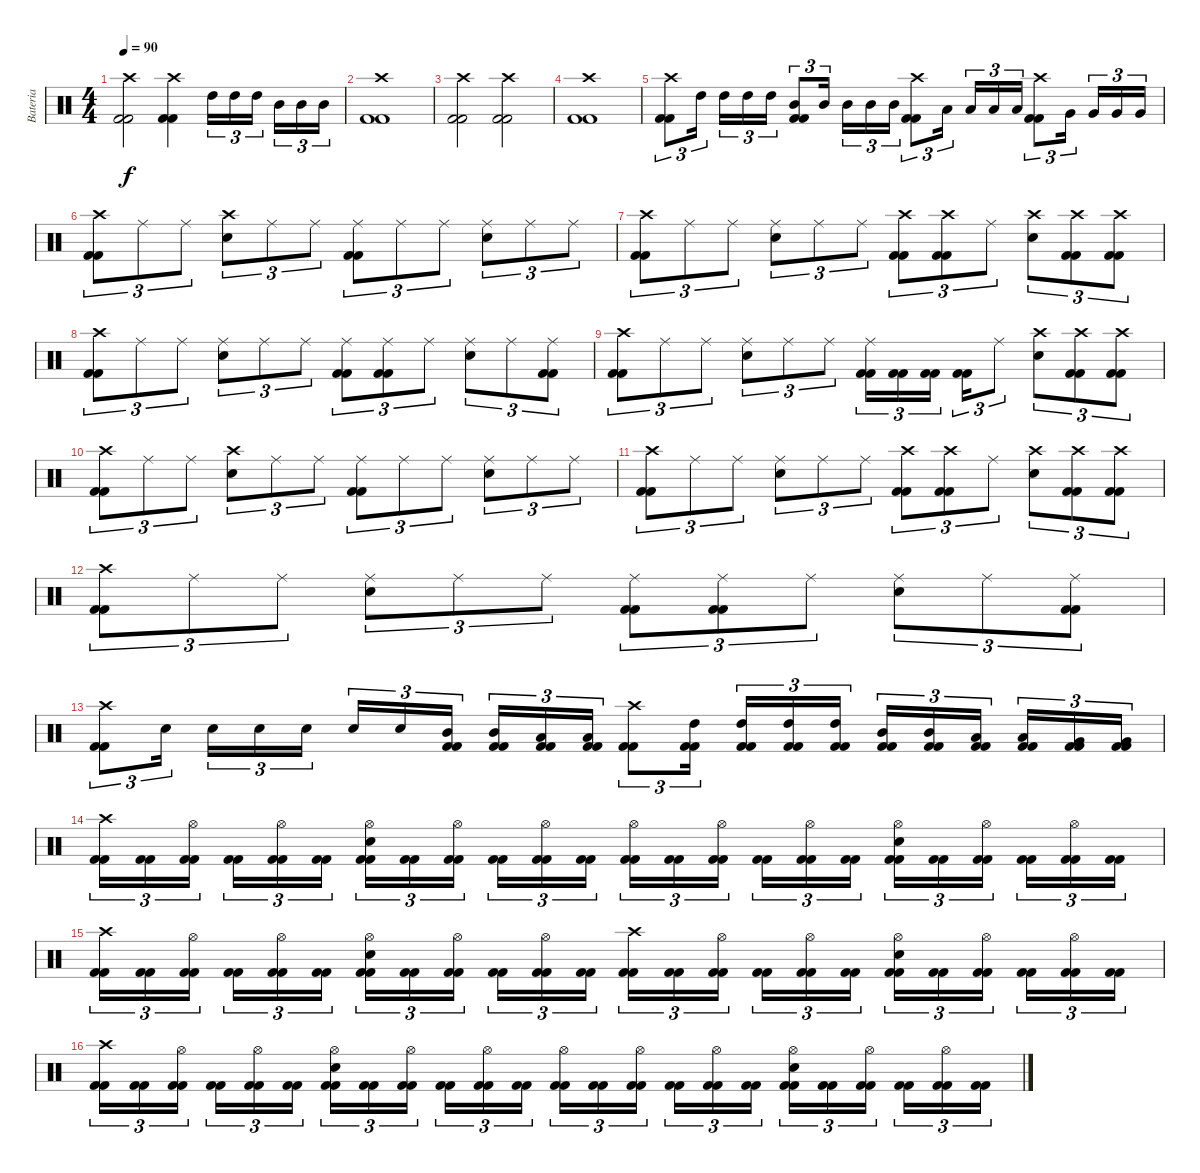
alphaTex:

\track ("Bateria" "Bateria") {instrument percussion}
\staff {score}
\articulation defaults
\ts (4 4)
\tempo 90
\clef neutral
\ks c
("Kick (hit) 2" "Kick (hit) 2" "Crash high (hit)").2{dy f} ("Kick (hit) 2" "Kick (hit) 2" "Crash high (hit)").4 "High Tom (hit)".16{tu (3 2)} "High Tom (hit)".16{tu (3 2)} "High Tom (hit)".16{tu (3 2)} "Mid Tom (hit)".16{tu (3 2)} "Mid Tom (hit)".16{tu (3 2)} "Mid Tom (hit)".16{tu (3 2)} |
("Kick (hit) 2" "Kick (hit) 2" "Crash high (hit)").1 |
("Kick (hit) 2" "Kick (hit) 2" "Crash high (hit)").2 ("Kick (hit) 2" "Kick (hit) 2" "Crash high (hit)").2 |
("Kick (hit) 2" "Kick (hit) 2" "Crash high (hit)").1 |
("Kick (hit) 2" "Kick (hit) 2" "Crash high (hit)").8{tu (3 2)} "High Tom (hit)".16{tu (3 2)} "High Tom (hit)".16{tu (3 2)} "High Tom (hit)".16{tu (3 2)} "High Tom (hit)".16{tu (3 2)} ("Kick (hit) 2" "Kick (hit) 2" "Mid Tom (hit)").8{tu (3 2)} "Mid Tom (hit)".16{tu (3 2)} "Mid Tom (hit)".16{tu (3 2)} "Mid Tom (hit)".16{tu (3 2)} "Mid Tom (hit)".16{tu (3 2)} ("Kick (hit) 2" "Kick (hit) 2" "Crash high (hit)").8{tu (3 2)} "Low Tom (hit)".16{tu (3 2)} "Low Tom (hit)".16{tu (3 2)} "Low Tom (hit)".16{tu (3 2)} "Low Tom (hit)".16{tu (3 2)} ("Kick (hit) 2" "Kick (hit) 2" "Crash high (hit)").8{tu (3 2)} "Very Low Tom (hit)".16{tu (3 2)} "Very Low Tom (hit)".16{tu (3 2)} "Very Low Tom (hit)".16{tu (3 2)} "Very Low Tom (hit)".16{tu (3 2)} |
("Kick (hit) 2" "Kick (hit) 2" "Crash high (hit)").8{tu (3 2)} "Ride (middle)".8{tu (3 2)} "Ride (middle)".8{tu (3 2)} ("Snare (hit) 2" "Crash high (hit)").8{tu (3 2)} "Ride (middle)".8{tu (3 2)} "Ride (middle)".8{tu (3 2)} ("Kick (hit) 2" "Kick (hit) 2" "Ride (middle)").8{tu (3 2)} "Ride (middle)".8{tu (3 2)} "Ride (middle)".8{tu (3 2)} ("Snare (hit) 2" "Ride (middle)").8{tu (3 2)} "Ride (middle)".8{tu (3 2)} "Ride (middle)".8{tu (3 2)} |
("Kick (hit) 2" "Kick (hit) 2" "Crash high (hit)").8{tu (3 2)} "Ride (middle)".8{tu (3 2)} "Ride (middle)".8{tu (3 2)} ("Snare (hit) 2" "Ride (middle)").8{tu (3 2)} "Ride (middle)".8{tu (3 2)} "Ride (middle)".8{tu (3 2)} ("Kick (hit) 2" "Kick (hit) 2" "Crash high (hit)").8{tu (3 2)} ("Kick (hit) 2" "Kick (hit) 2" "Crash high (hit)").8{tu (3 2)} "Ride (middle)".8{tu (3 2)} ("Snare (hit) 2" "Crash high (hit)").8{tu (3 2)} ("Kick (hit) 2" "Kick (hit) 2" "Crash high (hit)").8{tu (3 2)} ("Kick (hit) 2" "Kick (hit) 2" "Crash high (hit)").8{tu (3 2)} |
("Kick (hit) 2" "Kick (hit) 2" "Crash high (hit)").8{tu (3 2)} "Ride (middle)".8{tu (3 2)} "Ride (middle)".8{tu (3 2)} ("Snare (hit) 2" "Ride (middle)").8{tu (3 2)} "Ride (middle)".8{tu (3 2)} "Ride (middle)".8{tu (3 2)} ("Kick (hit) 2" "Kick (hit) 2" "Ride (middle)").8{tu (3 2)} ("Kick (hit) 2" "Kick (hit) 2" "Ride (middle)").8{tu (3 2)} "Ride (middle)".8{tu (3 2)} ("Snare (hit) 2" "Ride (middle)").8{tu (3 2)} "Ride (middle)".8{tu (3 2)} ("Kick (hit) 2" "Kick (hit) 2" "Ride (middle)").8{tu (3 2)} |
("Kick (hit) 2" "Kick (hit) 2" "Crash high (hit)").8{tu (3 2)} "Ride (middle)".8{tu (3 2)} "Ride (middle)".8{tu (3 2)} ("Snare (hit) 2" "Ride (middle)").8{tu (3 2)} "Ride (middle)".8{tu (3 2)} "Ride (middle)".8{tu (3 2)} ("Kick (hit) 2" "Kick (hit) 2" "Ride (middle)").16{tu (3 2)} ("Kick (hit) 2" "Kick (hit) 2").16{tu (3 2)} ("Kick (hit) 2" "Kick (hit) 2").16{tu (3 2)} ("Kick (hit) 2" "Kick (hit) 2").16{tu (3 2)} "Ride (middle)".8{tu (3 2)} ("Snare (hit) 2" "Crash high (hit)").8{tu (3 2)} ("Kick (hit) 2" "Kick (hit) 2" "Crash high (hit)").8{tu (3 2)} ("Kick (hit) 2" "Kick (hit) 2" "Crash high (hit)").8{tu (3 2)} |
("Kick (hit) 2" "Kick (hit) 2" "Crash high (hit)").8{tu (3 2)} "Ride (middle)".8{tu (3 2)} "Ride (middle)".8{tu (3 2)} ("Snare (hit) 2" "Crash high (hit)").8{tu (3 2)} "Ride (middle)".8{tu (3 2)} "Ride (middle)".8{tu (3 2)} ("Kick (hit) 2" "Kick (hit) 2" "Ride (middle)").8{tu (3 2)} "Ride (middle)".8{tu (3 2)} "Ride (middle)".8{tu (3 2)} ("Snare (hit) 2" "Ride (middle)").8{tu (3 2)} "Ride (middle)".8{tu (3 2)} "Ride (middle)".8{tu (3 2)} |
("Kick (hit) 2" "Kick (hit) 2" "Crash high (hit)").8{tu (3 2)} "Ride (middle)".8{tu (3 2)} "Ride (middle)".8{tu (3 2)} ("Snare (hit) 2" "Ride (middle)").8{tu (3 2)} "Ride (middle)".8{tu (3 2)} "Ride (middle)".8{tu (3 2)} ("Kick (hit) 2" "Kick (hit) 2" "Crash high (hit)").8{tu (3 2)} ("Kick (hit) 2" "Kick (hit) 2" "Crash high (hit)").8{tu (3 2)} "Ride (middle)".8{tu (3 2)} ("Snare (hit) 2" "Crash high (hit)").8{tu (3 2)} ("Kick (hit) 2" "Kick (hit) 2" "Crash high (hit)").8{tu (3 2)} ("Kick (hit) 2" "Kick (hit) 2" "Crash high (hit)").8{tu (3 2)} |
("Kick (hit) 2" "Kick (hit) 2" "Crash high (hit)").8{tu (3 2)} "Ride (middle)".8{tu (3 2)} "Ride (middle)".8{tu (3 2)} ("Snare (hit) 2" "Ride (middle)").8{tu (3 2)} "Ride (middle)".8{tu (3 2)} "Ride (middle)".8{tu (3 2)} ("Kick (hit) 2" "Kick (hit) 2" "Ride (middle)").8{tu (3 2)} ("Kick (hit) 2" "Kick (hit) 2" "Ride (middle)").8{tu (3 2)} "Ride (middle)".8{tu (3 2)} ("Snare (hit) 2" "Ride (middle)").8{tu (3 2)} "Ride (middle)".8{tu (3 2)} ("Kick (hit) 2" "Kick (hit) 2" "Ride (middle)").8{tu (3 2)} |
("Kick (hit) 2" "Kick (hit) 2" "Crash high (hit)").8{tu (3 2)} "Snare (hit) 2".16{tu (3 2)} "Snare (hit) 2".16{tu (3 2)} "Snare (hit) 2".16{tu (3 2)} "Snare (hit) 2".16{tu (3 2)} "Snare (hit) 2".16{tu (3 2)} "Snare (hit) 2".16{tu (3 2)} ("Kick (hit) 2" "Kick (hit) 2" "Mid Tom (hit)").16{tu (3 2)} ("Kick (hit) 2" "Kick (hit) 2" "Mid Tom (hit)").16{tu (3 2)} ("Kick (hit) 2" "Kick (hit) 2" "Low Tom (hit)").16{tu (3 2)} ("Kick (hit) 2" "Kick (hit) 2" "Low Tom (hit)").16{tu (3 2)} ("Kick (hit) 2" "Kick (hit) 2" "Crash high (hit)").8{tu (3 2)} ("Kick (hit) 2" "Kick (hit) 2" "High Tom (hit)").16{tu (3 2)} ("Kick (hit) 2" "Kick (hit) 2" "High Tom (hit)").16{tu (3 2)} ("Kick (hit) 2" "Kick (hit) 2" "High Tom (hit)").16{tu (3 2)} ("Kick (hit) 2" "Kick (hit) 2" "High Tom (hit)").16{tu (3 2)} ("Kick (hit) 2" "Kick (hit) 2" "Mid Tom (hit)").16{tu (3 2)} ("Kick (hit) 2" "Kick (hit) 2" "Mid Tom (hit)").16{tu (3 2)} ("Kick (hit) 2" "Kick (hit) 2" "Low Tom (hit)").16{tu (3 2)} ("Kick (hit) 2" "Kick (hit) 2" "Low Tom (hit)").16{tu (3 2)} ("Kick (hit) 2" "Kick (hit) 2" "Very Low Tom (hit)").16{tu (3 2)} ("Kick (hit) 2" "Kick (hit) 2" "Very Low Tom (hit)").16{tu (3 2)} |
("Kick (hit) 2" "Kick (hit) 2" "Crash high (hit)").16{tu (3 2)} ("Kick (hit) 2" "Kick (hit) 2").16{tu (3 2)} ("Kick (hit) 2" "Kick (hit) 2" "Hi-Hat (open)").16{tu (3 2)} ("Kick (hit) 2" "Kick (hit) 2").16{tu (3 2)} ("Kick (hit) 2" "Kick (hit) 2" "Hi-Hat (open)").16{tu (3 2)} ("Kick (hit) 2" "Kick (hit) 2").16{tu (3 2)} ("Kick (hit) 2" "Kick (hit) 2" "Snare (hit) 2" "Hi-Hat (open)").16{tu (3 2)} ("Kick (hit) 2" "Kick (hit) 2").16{tu (3 2)} ("Kick (hit) 2" "Kick (hit) 2" "Hi-Hat (open)").16{tu (3 2)} ("Kick (hit) 2" "Kick (hit) 2").16{tu (3 2)} ("Kick (hit) 2" "Kick (hit) 2" "Hi-Hat (open)").16{tu (3 2)} ("Kick (hit) 2" "Kick (hit) 2").16{tu (3 2)} ("Kick (hit) 2" "Kick (hit) 2" "Hi-Hat (open)").16{tu (3 2)} ("Kick (hit) 2" "Kick (hit) 2").16{tu (3 2)} ("Kick (hit) 2" "Kick (hit) 2" "Hi-Hat (open)").16{tu (3 2)} ("Kick (hit) 2" "Kick (hit) 2").16{tu (3 2)} ("Kick (hit) 2" "Kick (hit) 2" "Hi-Hat (open)").16{tu (3 2)} ("Kick (hit) 2" "Kick (hit) 2").16{tu (3 2)} ("Kick (hit) 2" "Kick (hit) 2" "Snare (hit) 2" "Hi-Hat (open)").16{tu (3 2)} ("Kick (hit) 2" "Kick (hit) 2").16{tu (3 2)} ("Kick (hit) 2" "Kick (hit) 2" "Hi-Hat (open)").16{tu (3 2)} ("Kick (hit) 2" "Kick (hit) 2").16{tu (3 2)} ("Kick (hit) 2" "Kick (hit) 2" "Hi-Hat (open)").16{tu (3 2)} ("Kick (hit) 2" "Kick (hit) 2").16{tu (3 2)} |
("Kick (hit) 2" "Kick (hit) 2" "Crash high (hit)").16{tu (3 2)} ("Kick (hit) 2" "Kick (hit) 2").16{tu (3 2)} ("Kick (hit) 2" "Kick (hit) 2" "Hi-Hat (open)").16{tu (3 2)} ("Kick (hit) 2" "Kick (hit) 2").16{tu (3 2)} ("Kick (hit) 2" "Kick (hit) 2" "Hi-Hat (open)").16{tu (3 2)} ("Kick (hit) 2" "Kick (hit) 2").16{tu (3 2)} ("Kick (hit) 2" "Kick (hit) 2" "Snare (hit) 2" "Hi-Hat (open)").16{tu (3 2)} ("Kick (hit) 2" "Kick (hit) 2").16{tu (3 2)} ("Kick (hit) 2" "Kick (hit) 2" "Hi-Hat (open)").16{tu (3 2)} ("Kick (hit) 2" "Kick (hit) 2").16{tu (3 2)} ("Kick (hit) 2" "Kick (hit) 2" "Hi-Hat (open)").16{tu (3 2)} ("Kick (hit) 2" "Kick (hit) 2").16{tu (3 2)} ("Kick (hit) 2" "Kick (hit) 2" "Crash high (hit)").16{tu (3 2)} ("Kick (hit) 2" "Kick (hit) 2").16{tu (3 2)} ("Kick (hit) 2" "Kick (hit) 2" "Hi-Hat (open)").16{tu (3 2)} ("Kick (hit) 2" "Kick (hit) 2").16{tu (3 2)} ("Kick (hit) 2" "Kick (hit) 2" "Hi-Hat (open)").16{tu (3 2)} ("Kick (hit) 2" "Kick (hit) 2").16{tu (3 2)} ("Kick (hit) 2" "Kick (hit) 2" "Snare (hit) 2" "Hi-Hat (open)").16{tu (3 2)} ("Kick (hit) 2" "Kick (hit) 2").16{tu (3 2)} ("Kick (hit) 2" "Kick (hit) 2" "Hi-Hat (open)").16{tu (3 2)} ("Kick (hit) 2" "Kick (hit) 2").16{tu (3 2)} ("Kick (hit) 2" "Kick (hit) 2" "Hi-Hat (open)").16{tu (3 2)} ("Kick (hit) 2" "Kick (hit) 2").16{tu (3 2)} |
("Kick (hit) 2" "Kick (hit) 2" "Crash high (hit)").16{tu (3 2)} ("Kick (hit) 2" "Kick (hit) 2").16{tu (3 2)} ("Kick (hit) 2" "Kick (hit) 2" "Hi-Hat (open)").16{tu (3 2)} ("Kick (hit) 2" "Kick (hit) 2").16{tu (3 2)} ("Kick (hit) 2" "Kick (hit) 2" "Hi-Hat (open)").16{tu (3 2)} ("Kick (hit) 2" "Kick (hit) 2").16{tu (3 2)} ("Kick (hit) 2" "Kick (hit) 2" "Snare (hit) 2" "Hi-Hat (open)").16{tu (3 2)} ("Kick (hit) 2" "Kick (hit) 2").16{tu (3 2)} ("Kick (hit) 2" "Kick (hit) 2" "Hi-Hat (open)").16{tu (3 2)} ("Kick (hit) 2" "Kick (hit) 2").16{tu (3 2)} ("Kick (hit) 2" "Kick (hit) 2" "Hi-Hat (open)").16{tu (3 2)} ("Kick (hit) 2" "Kick (hit) 2").16{tu (3 2)} ("Kick (hit) 2" "Kick (hit) 2" "Hi-Hat (open)").16{tu (3 2)} ("Kick (hit) 2" "Kick (hit) 2").16{tu (3 2)} ("Kick (hit) 2" "Kick (hit) 2" "Hi-Hat (open)").16{tu (3 2)} ("Kick (hit) 2" "Kick (hit) 2").16{tu (3 2)} ("Kick (hit) 2" "Kick (hit) 2" "Hi-Hat (open)").16{tu (3 2)} ("Kick (hit) 2" "Kick (hit) 2").16{tu (3 2)} ("Kick (hit) 2" "Kick (hit) 2" "Snare (hit) 2" "Hi-Hat (open)").16{tu (3 2)} ("Kick (hit) 2" "Kick (hit) 2").16{tu (3 2)} ("Kick (hit) 2" "Kick (hit) 2" "Hi-Hat (open)").16{tu (3 2)} ("Kick (hit) 2" "Kick (hit) 2").16{tu (3 2)} ("Kick (hit) 2" "Kick (hit) 2" "Hi-Hat (open)").16{tu (3 2)} ("Kick (hit) 2" "Kick (hit) 2").16{tu (3 2)}
